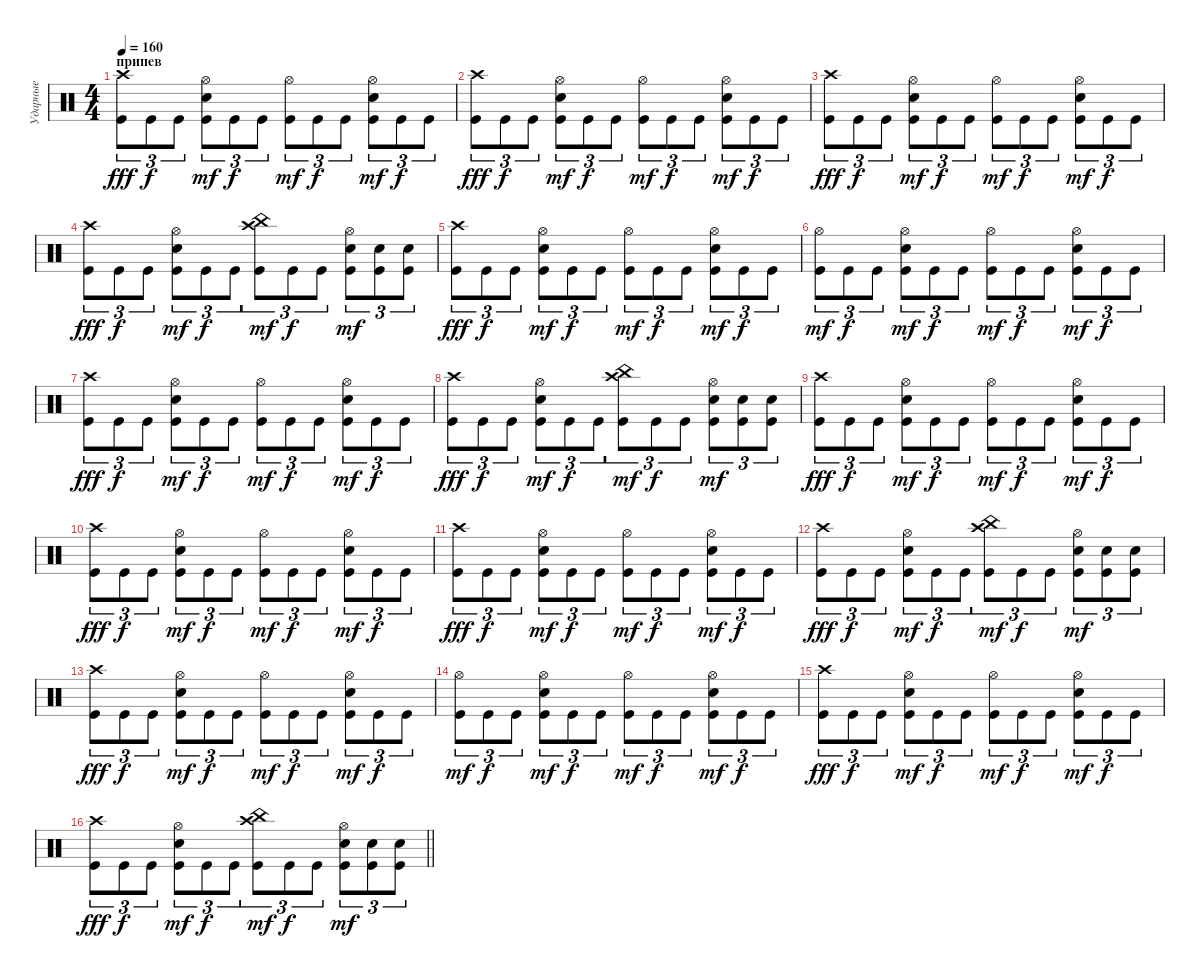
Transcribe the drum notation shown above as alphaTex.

\track ("Ударные" "Ударные") {instrument percussion}
\staff {score}
\articulation defaults
\ts (4 4)
\section ("" "припев")
\tempo 160
\clef neutral
\ks c
("Kick (hit)" "Crash high (hit)").8{tu (3 2) dy fff} "Kick (hit)".8{tu (3 2) dy f} "Kick (hit)".8{tu (3 2)} ("Kick (hit)" "Snare (hit) 2" "Hi-Hat (open)").8{tu (3 2) dy mf} "Kick (hit)".8{tu (3 2) dy f} "Kick (hit)".8{tu (3 2)} ("Kick (hit)" "Hi-Hat (open)").8{tu (3 2) dy mf} "Kick (hit)".8{tu (3 2) dy f} "Kick (hit)".8{tu (3 2)} ("Kick (hit)" "Snare (hit) 2" "Hi-Hat (open)").8{tu (3 2) dy mf} "Kick (hit)".8{tu (3 2) dy f} "Kick (hit)".8{tu (3 2)} |
("Kick (hit)" "Crash high (hit)").8{tu (3 2) dy fff} "Kick (hit)".8{tu (3 2) dy f} "Kick (hit)".8{tu (3 2)} ("Kick (hit)" "Snare (hit) 2" "Hi-Hat (open)").8{tu (3 2) dy mf} "Kick (hit)".8{tu (3 2) dy f} "Kick (hit)".8{tu (3 2)} ("Kick (hit)" "Hi-Hat (open)").8{tu (3 2) dy mf} "Kick (hit)".8{tu (3 2) dy f} "Kick (hit)".8{tu (3 2)} ("Kick (hit)" "Snare (hit) 2" "Hi-Hat (open)").8{tu (3 2) dy mf} "Kick (hit)".8{tu (3 2) dy f} "Kick (hit)".8{tu (3 2)} |
("Kick (hit)" "Crash high (hit)").8{tu (3 2) dy fff} "Kick (hit)".8{tu (3 2) dy f} "Kick (hit)".8{tu (3 2)} ("Kick (hit)" "Snare (hit) 2" "Hi-Hat (open)").8{tu (3 2) dy mf} "Kick (hit)".8{tu (3 2) dy f} "Kick (hit)".8{tu (3 2)} ("Kick (hit)" "Hi-Hat (open)").8{tu (3 2) dy mf} "Kick (hit)".8{tu (3 2) dy f} "Kick (hit)".8{tu (3 2)} ("Kick (hit)" "Snare (hit) 2" "Hi-Hat (open)").8{tu (3 2) dy mf} "Kick (hit)".8{tu (3 2) dy f} "Kick (hit)".8{tu (3 2)} |
("Kick (hit)" "Crash high (hit)").8{tu (3 2) dy fff} "Kick (hit)".8{tu (3 2) dy f} "Kick (hit)".8{tu (3 2)} ("Kick (hit)" "Snare (hit) 2" "Hi-Hat (open)").8{tu (3 2) dy mf} "Kick (hit)".8{tu (3 2) dy f} "Kick (hit)".8{tu (3 2)} ("Kick (hit)" "China (hit)" "Crash high (hit)").8{tu (3 2) dy mf} "Kick (hit)".8{tu (3 2) dy f} "Kick (hit)".8{tu (3 2)} ("Kick (hit)" "Snare (hit) 2" "Hi-Hat (open)").8{tu (3 2) dy mf} ("Kick (hit)" "Snare (hit) 2").8{tu (3 2)} ("Kick (hit)" "Snare (hit) 2").8{tu (3 2)} |
("Kick (hit)" "Crash high (hit)").8{tu (3 2) dy fff} "Kick (hit)".8{tu (3 2) dy f} "Kick (hit)".8{tu (3 2)} ("Kick (hit)" "Snare (hit) 2" "Hi-Hat (open)").8{tu (3 2) dy mf} "Kick (hit)".8{tu (3 2) dy f} "Kick (hit)".8{tu (3 2)} ("Kick (hit)" "Hi-Hat (open)").8{tu (3 2) dy mf} "Kick (hit)".8{tu (3 2) dy f} "Kick (hit)".8{tu (3 2)} ("Kick (hit)" "Snare (hit) 2" "Hi-Hat (open)").8{tu (3 2) dy mf} "Kick (hit)".8{tu (3 2) dy f} "Kick (hit)".8{tu (3 2)} |
("Kick (hit)" "Hi-Hat (open)").8{tu (3 2) dy mf} "Kick (hit)".8{tu (3 2) dy f} "Kick (hit)".8{tu (3 2)} ("Kick (hit)" "Snare (hit) 2" "Hi-Hat (open)").8{tu (3 2) dy mf} "Kick (hit)".8{tu (3 2) dy f} "Kick (hit)".8{tu (3 2)} ("Kick (hit)" "Hi-Hat (open)").8{tu (3 2) dy mf} "Kick (hit)".8{tu (3 2) dy f} "Kick (hit)".8{tu (3 2)} ("Kick (hit)" "Snare (hit) 2" "Hi-Hat (open)").8{tu (3 2) dy mf} "Kick (hit)".8{tu (3 2) dy f} "Kick (hit)".8{tu (3 2)} |
("Kick (hit)" "Crash high (hit)").8{tu (3 2) dy fff} "Kick (hit)".8{tu (3 2) dy f} "Kick (hit)".8{tu (3 2)} ("Kick (hit)" "Snare (hit) 2" "Hi-Hat (open)").8{tu (3 2) dy mf} "Kick (hit)".8{tu (3 2) dy f} "Kick (hit)".8{tu (3 2)} ("Kick (hit)" "Hi-Hat (open)").8{tu (3 2) dy mf} "Kick (hit)".8{tu (3 2) dy f} "Kick (hit)".8{tu (3 2)} ("Kick (hit)" "Snare (hit) 2" "Hi-Hat (open)").8{tu (3 2) dy mf} "Kick (hit)".8{tu (3 2) dy f} "Kick (hit)".8{tu (3 2)} |
("Kick (hit)" "Crash high (hit)").8{tu (3 2) dy fff} "Kick (hit)".8{tu (3 2) dy f} "Kick (hit)".8{tu (3 2)} ("Kick (hit)" "Snare (hit) 2" "Hi-Hat (open)").8{tu (3 2) dy mf} "Kick (hit)".8{tu (3 2) dy f} "Kick (hit)".8{tu (3 2)} ("Kick (hit)" "China (hit)" "Crash high (hit)").8{tu (3 2) dy mf} "Kick (hit)".8{tu (3 2) dy f} "Kick (hit)".8{tu (3 2)} ("Kick (hit)" "Snare (hit) 2" "Hi-Hat (open)").8{tu (3 2) dy mf} ("Kick (hit)" "Snare (hit) 2").8{tu (3 2)} ("Kick (hit)" "Snare (hit) 2").8{tu (3 2)} |
("Kick (hit)" "Crash high (hit)").8{tu (3 2) dy fff} "Kick (hit)".8{tu (3 2) dy f} "Kick (hit)".8{tu (3 2)} ("Kick (hit)" "Snare (hit) 2" "Hi-Hat (open)").8{tu (3 2) dy mf} "Kick (hit)".8{tu (3 2) dy f} "Kick (hit)".8{tu (3 2)} ("Kick (hit)" "Hi-Hat (open)").8{tu (3 2) dy mf} "Kick (hit)".8{tu (3 2) dy f} "Kick (hit)".8{tu (3 2)} ("Kick (hit)" "Snare (hit) 2" "Hi-Hat (open)").8{tu (3 2) dy mf} "Kick (hit)".8{tu (3 2) dy f} "Kick (hit)".8{tu (3 2)} |
("Kick (hit)" "Crash high (hit)").8{tu (3 2) dy fff} "Kick (hit)".8{tu (3 2) dy f} "Kick (hit)".8{tu (3 2)} ("Kick (hit)" "Snare (hit) 2" "Hi-Hat (open)").8{tu (3 2) dy mf} "Kick (hit)".8{tu (3 2) dy f} "Kick (hit)".8{tu (3 2)} ("Kick (hit)" "Hi-Hat (open)").8{tu (3 2) dy mf} "Kick (hit)".8{tu (3 2) dy f} "Kick (hit)".8{tu (3 2)} ("Kick (hit)" "Snare (hit) 2" "Hi-Hat (open)").8{tu (3 2) dy mf} "Kick (hit)".8{tu (3 2) dy f} "Kick (hit)".8{tu (3 2)} |
("Kick (hit)" "Crash high (hit)").8{tu (3 2) dy fff} "Kick (hit)".8{tu (3 2) dy f} "Kick (hit)".8{tu (3 2)} ("Kick (hit)" "Snare (hit) 2" "Hi-Hat (open)").8{tu (3 2) dy mf} "Kick (hit)".8{tu (3 2) dy f} "Kick (hit)".8{tu (3 2)} ("Kick (hit)" "Hi-Hat (open)").8{tu (3 2) dy mf} "Kick (hit)".8{tu (3 2) dy f} "Kick (hit)".8{tu (3 2)} ("Kick (hit)" "Snare (hit) 2" "Hi-Hat (open)").8{tu (3 2) dy mf} "Kick (hit)".8{tu (3 2) dy f} "Kick (hit)".8{tu (3 2)} |
("Kick (hit)" "Crash high (hit)").8{tu (3 2) dy fff} "Kick (hit)".8{tu (3 2) dy f} "Kick (hit)".8{tu (3 2)} ("Kick (hit)" "Snare (hit) 2" "Hi-Hat (open)").8{tu (3 2) dy mf} "Kick (hit)".8{tu (3 2) dy f} "Kick (hit)".8{tu (3 2)} ("Kick (hit)" "China (hit)" "Crash high (hit)").8{tu (3 2) dy mf} "Kick (hit)".8{tu (3 2) dy f} "Kick (hit)".8{tu (3 2)} ("Kick (hit)" "Snare (hit) 2" "Hi-Hat (open)").8{tu (3 2) dy mf} ("Kick (hit)" "Snare (hit) 2").8{tu (3 2)} ("Kick (hit)" "Snare (hit) 2").8{tu (3 2)} |
("Kick (hit)" "Crash high (hit)").8{tu (3 2) dy fff} "Kick (hit)".8{tu (3 2) dy f} "Kick (hit)".8{tu (3 2)} ("Kick (hit)" "Snare (hit) 2" "Hi-Hat (open)").8{tu (3 2) dy mf} "Kick (hit)".8{tu (3 2) dy f} "Kick (hit)".8{tu (3 2)} ("Kick (hit)" "Hi-Hat (open)").8{tu (3 2) dy mf} "Kick (hit)".8{tu (3 2) dy f} "Kick (hit)".8{tu (3 2)} ("Kick (hit)" "Snare (hit) 2" "Hi-Hat (open)").8{tu (3 2) dy mf} "Kick (hit)".8{tu (3 2) dy f} "Kick (hit)".8{tu (3 2)} |
("Kick (hit)" "Hi-Hat (open)").8{tu (3 2) dy mf} "Kick (hit)".8{tu (3 2) dy f} "Kick (hit)".8{tu (3 2)} ("Kick (hit)" "Snare (hit) 2" "Hi-Hat (open)").8{tu (3 2) dy mf} "Kick (hit)".8{tu (3 2) dy f} "Kick (hit)".8{tu (3 2)} ("Kick (hit)" "Hi-Hat (open)").8{tu (3 2) dy mf} "Kick (hit)".8{tu (3 2) dy f} "Kick (hit)".8{tu (3 2)} ("Kick (hit)" "Snare (hit) 2" "Hi-Hat (open)").8{tu (3 2) dy mf} "Kick (hit)".8{tu (3 2) dy f} "Kick (hit)".8{tu (3 2)} |
("Kick (hit)" "Crash high (hit)").8{tu (3 2) dy fff} "Kick (hit)".8{tu (3 2) dy f} "Kick (hit)".8{tu (3 2)} ("Kick (hit)" "Snare (hit) 2" "Hi-Hat (open)").8{tu (3 2) dy mf} "Kick (hit)".8{tu (3 2) dy f} "Kick (hit)".8{tu (3 2)} ("Kick (hit)" "Hi-Hat (open)").8{tu (3 2) dy mf} "Kick (hit)".8{tu (3 2) dy f} "Kick (hit)".8{tu (3 2)} ("Kick (hit)" "Snare (hit) 2" "Hi-Hat (open)").8{tu (3 2) dy mf} "Kick (hit)".8{tu (3 2) dy f} "Kick (hit)".8{tu (3 2)} |
\barLineRight lightlight
("Kick (hit)" "Crash high (hit)").8{tu (3 2) dy fff} "Kick (hit)".8{tu (3 2) dy f} "Kick (hit)".8{tu (3 2)} ("Kick (hit)" "Snare (hit) 2" "Hi-Hat (open)").8{tu (3 2) dy mf} "Kick (hit)".8{tu (3 2) dy f} "Kick (hit)".8{tu (3 2)} ("Kick (hit)" "China (hit)" "Crash high (hit)").8{tu (3 2) dy mf} "Kick (hit)".8{tu (3 2) dy f} "Kick (hit)".8{tu (3 2)} ("Kick (hit)" "Snare (hit) 2" "Hi-Hat (open)").8{tu (3 2) dy mf} ("Kick (hit)" "Snare (hit) 2").8{tu (3 2)} ("Kick (hit)" "Snare (hit) 2").8{tu (3 2)}
